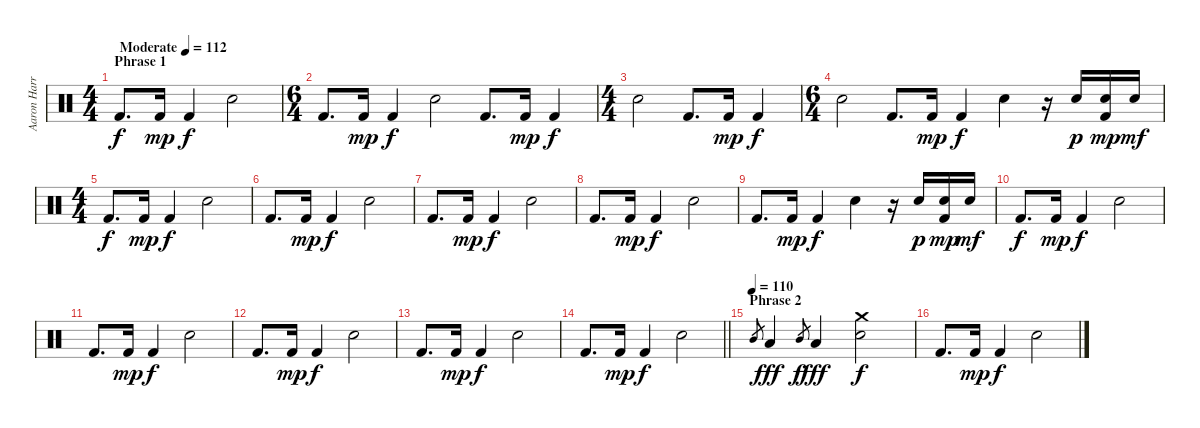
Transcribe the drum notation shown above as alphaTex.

\track ("Aaron Harris" "Aaron Harr") {instrument percussion}
\staff {score}
\articulation defaults
\ts (4 4)
\section ("" "Phrase 1")
\tempo (112 "Moderate")
\clef neutral
\ks c "Kick (hit) 2".8{d dy f} "Kick (hit) 2".16{dy mp} "Kick (hit) 2".4{dy f} "Electric Snare (hit)".2
|
\ts (6 4)
"Kick (hit) 2".8{d} "Kick (hit) 2".16{dy mp} "Kick (hit) 2".4{dy f} "Electric Snare (hit)".2 "Kick (hit) 2".8{d} "Kick (hit) 2".16{dy mp} "Kick (hit) 2".4{dy f} |
\ts (4 4)
"Electric Snare (hit)".2 "Kick (hit) 2".8{d} "Kick (hit) 2".16{dy mp} "Kick (hit) 2".4{dy f} |
\ts (6 4)
"Electric Snare (hit)".2 "Kick (hit) 2".8{d} "Kick (hit) 2".16{dy mp} "Kick (hit) 2".4{dy f} "Electric Snare (hit)".4 r.16 "Electric Snare (hit)".16{dy p} ("Electric Snare (hit)" "Kick (hit) 2").16{dy mp} "Electric Snare (hit)".16{dy mf} |
\ts (4 4)
"Kick (hit) 2".8{d dy f} "Kick (hit) 2".16{dy mp} "Kick (hit) 2".4{dy f} "Electric Snare (hit)".2 |
"Kick (hit) 2".8{d} "Kick (hit) 2".16{dy mp} "Kick (hit) 2".4{dy f} "Electric Snare (hit)".2 |
"Kick (hit) 2".8{d} "Kick (hit) 2".16{dy mp} "Kick (hit) 2".4{dy f} "Electric Snare (hit)".2 |
"Kick (hit) 2".8{d} "Kick (hit) 2".16{dy mp} "Kick (hit) 2".4{dy f} "Electric Snare (hit)".2 |
"Kick (hit) 2".8{d} "Kick (hit) 2".16{dy mp} "Kick (hit) 2".4{dy f} "Electric Snare (hit)".4 r.16 "Electric Snare (hit)".16{dy p} ("Electric Snare (hit)" "Kick (hit) 2").16{dy mp} "Electric Snare (hit)".16{dy mf} |
"Kick (hit) 2".8{d dy f} "Kick (hit) 2".16{dy mp} "Kick (hit) 2".4{dy f} "Electric Snare (hit)".2 |
"Kick (hit) 2".8{d} "Kick (hit) 2".16{dy mp} "Kick (hit) 2".4{dy f} "Electric Snare (hit)".2 |
"Kick (hit) 2".8{d} "Kick (hit) 2".16{dy mp} "Kick (hit) 2".4{dy f} "Electric Snare (hit)".2 |
"Kick (hit) 2".8{d} "Kick (hit) 2".16{dy mp} "Kick (hit) 2".4{dy f} "Electric Snare (hit)".2 |
\barLineRight lightlight "Kick (hit) 2".8{d} "Kick (hit) 2".16{dy mp} "Kick (hit) 2".4{dy f} "Electric Snare (hit)".2
|
\section ("" "Phrase 2")
\tempo (110)
"Mid Tom (hit)".8{gr} "Low Tom (hit)".4{dy fff} "Mid Tom (hit)".8{gr dy f} "Low Tom (hit)".4{dy fff} ("Crash medium (hit)" "Electric Snare (hit)").2{dy f} |
"Kick (hit) 2".8{d} "Kick (hit) 2".16{dy mp} "Kick (hit) 2".4{dy f} "Electric Snare (hit)".2
